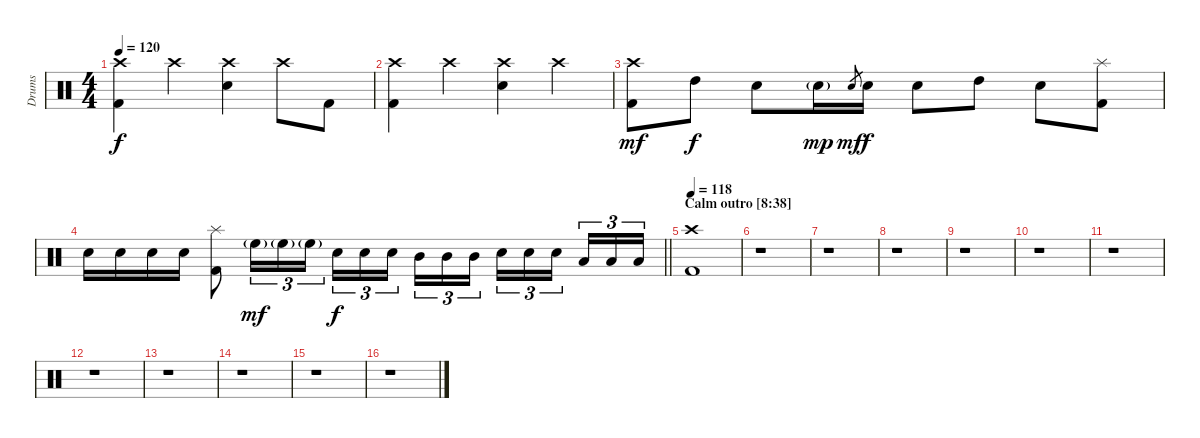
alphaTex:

\track ("Drums" "Drums") {instrument percussion}
\staff {score}
\articulation defaults
\ts (4 4)
\tempo 120
\clef neutral
\ks c
("Crash high (hit)" "Kick (hit) 2").4{dy f} "Crash high (hit)".4 ("Crash high (hit)" "Snare (hit) 2").4 "Crash high (hit)".8 "Kick (hit) 2".8 |
("Crash high (hit)" "Kick (hit) 2").4 "Crash high (hit)".4 ("Crash high (hit)" "Snare (hit) 2").4 "Crash high (hit)".4 |
("Crash high (hit)" "Kick (hit) 2").8{dy mf} "High Tom (hit)".8{dy f} "Snare (hit) 2".8 "Snare (hit) 2"{g}.16{dy mp} "Snare (hit) 2".8{gr dy mf} "Snare (hit) 2".16{dy f} "Snare (hit) 2".8 "High Tom (hit)".8 "Snare (hit) 2".8 ("Splash (hit)" "Kick (hit) 2").8 |
\barLineRight lightlight "Snare (hit) 2".16 "Snare (hit) 2".16 "Snare (hit) 2".16 "Snare (hit) 2".16
("Splash (hit)" "Kick (hit) 2").8 "High Floor Tom (hit)"{g}.16{tu (3 2) dy mf} "High Floor Tom (hit)"{g}.16{tu (3 2)} "High Floor Tom (hit)"{g}.16{tu (3 2)} "Snare (hit) 2".16{tu (3 2) dy f} "Snare (hit) 2".16{tu (3 2)} "Snare (hit) 2".16{tu (3 2) beam splitsecondary} "Mid Tom (hit)".16{tu (3 2)} "Mid Tom (hit)".16{tu (3 2)} "Mid Tom (hit)".16{tu (3 2)} "Snare (hit) 2".16{tu (3 2)} "Snare (hit) 2".16{tu (3 2)} "Snare (hit) 2".16{tu (3 2) beam splitsecondary} "Low Tom (hit)".16{tu (3 2)} "Low Tom (hit)".16{tu (3 2)} "Low Tom (hit)".16{tu (3 2)} |
\section ("" "Calm outro [8:38]")
\tempo 118
("Crash high (hit)" "Kick (hit) 2").1 |
r.1 |
r.1 |
r.1 |
r.1 |
r.1 |
r.1 |
r.1 |
r.1 |
r.1 |
r.1 |
r.1
